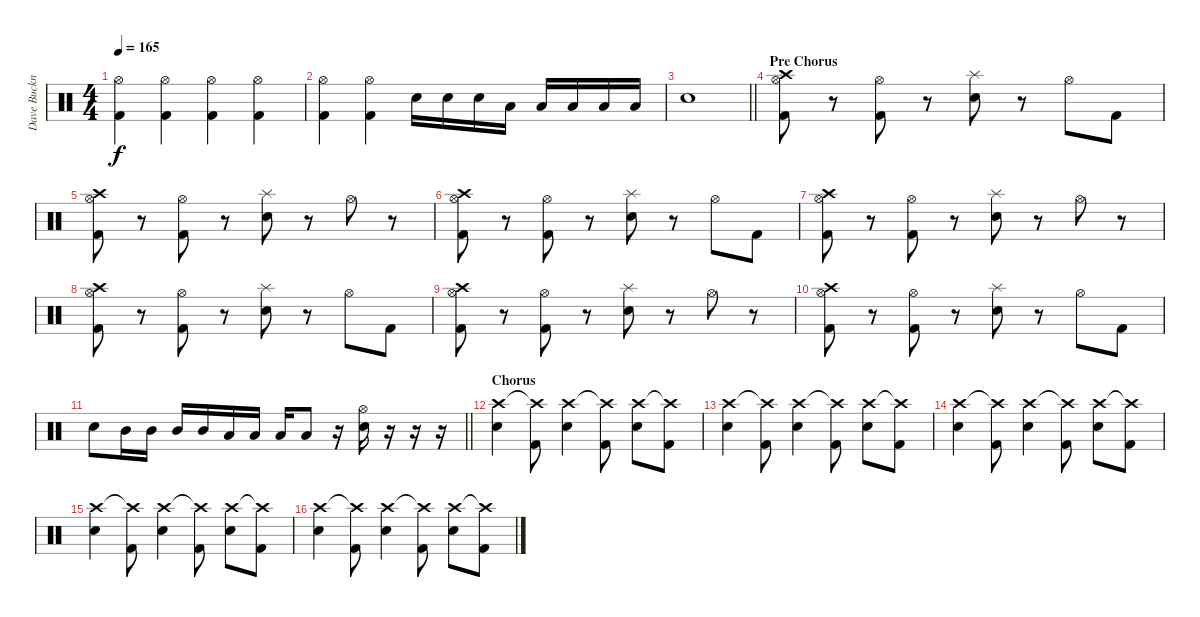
\track ("Dave Buckner " "Dave Buckn") {instrument percussion}
\staff {score}
\articulation defaults
\ts (4 4)
\tempo 165
\clef neutral
\ks c
("Hi-Hat (open)" "Kick (hit) 2").4{dy f} ("Hi-Hat (open)" "Kick (hit) 2").4 ("Hi-Hat (open)" "Kick (hit) 2").4 ("Hi-Hat (open)" "Kick (hit) 2").4 |
("Hi-Hat (open)" "Kick (hit) 2").4 ("Hi-Hat (open)" "Kick (hit) 2").4 "Snare (hit) 2".16 "Snare (hit) 2".16 "Snare (hit) 2".16 "Low Tom (hit)".16 "Low Tom (hit)".16 "Low Tom (hit)".16 "Low Tom (hit)".16 "Low Tom (hit)".16 |
\barLineRight lightlight "Snare (hit) 2".1
|
\section ("" "Pre Chorus")
("Crash high (hit)" "Hi-Hat (open)" "Kick (hit) 2").8 r.8 ("Hi-Hat (open)" "Kick (hit) 2").8 r.8 ("Splash (hit)" "Snare (hit) 2").8 r.8 "Hi-Hat (open)".8 "Kick (hit) 2".8 |
("Crash high (hit)" "Hi-Hat (open)" "Kick (hit) 2").8 r.8 ("Hi-Hat (open)" "Kick (hit) 2").8 r.8 ("Splash (hit)" "Snare (hit) 2").8 r.8 "Hi-Hat (open)".8 r.8 |
("Crash high (hit)" "Hi-Hat (open)" "Kick (hit) 2").8 r.8 ("Hi-Hat (open)" "Kick (hit) 2").8 r.8 ("Splash (hit)" "Snare (hit) 2").8 r.8 "Hi-Hat (open)".8 "Kick (hit) 2".8 |
("Crash high (hit)" "Hi-Hat (open)" "Kick (hit) 2").8 r.8 ("Hi-Hat (open)" "Kick (hit) 2").8 r.8 ("Splash (hit)" "Snare (hit) 2").8 r.8 "Hi-Hat (open)".8 r.8 |
("Crash high (hit)" "Hi-Hat (open)" "Kick (hit) 2").8 r.8 ("Hi-Hat (open)" "Kick (hit) 2").8 r.8 ("Splash (hit)" "Snare (hit) 2").8 r.8 "Hi-Hat (open)".8 "Kick (hit) 2".8 |
("Crash high (hit)" "Hi-Hat (open)" "Kick (hit) 2").8 r.8 ("Hi-Hat (open)" "Kick (hit) 2").8 r.8 ("Splash (hit)" "Snare (hit) 2").8 r.8 "Hi-Hat (open)".8 r.8 |
("Crash high (hit)" "Hi-Hat (open)" "Kick (hit) 2").8 r.8 ("Hi-Hat (open)" "Kick (hit) 2").8 r.8 ("Splash (hit)" "Snare (hit) 2").8 r.8 "Hi-Hat (open)".8 "Kick (hit) 2".8 |
\barLineRight lightlight "Snare (hit) 2".8 "Mid Tom (hit)".16 "Mid Tom (hit)".16 "Mid Tom (hit)".16 "Mid Tom (hit)".16 "Low Tom (hit)".16 "Low Tom (hit)".16 "Low Tom (hit)".16 "Low Tom (hit)".8
r.16 ("Hi-Hat (open)" "Snare (hit) 2").16 r.16 r.16 r.16 |
\section ("" "Chorus")
("Crash high (hit)" "Snare (hit) 2").4 ("Crash high (hit)"{t} "Kick (hit) 2").8 ("Crash high (hit)" "Snare (hit) 2").4 ("Crash high (hit)"{t} "Kick (hit) 2").8 ("Crash high (hit)" "Snare (hit) 2").8 ("Crash high (hit)"{t} "Kick (hit) 2").8 |
("Crash high (hit)" "Snare (hit) 2").4 ("Crash high (hit)"{t} "Kick (hit) 2").8 ("Crash high (hit)" "Snare (hit) 2").4 ("Crash high (hit)"{t} "Kick (hit) 2").8 ("Crash high (hit)" "Snare (hit) 2").8 ("Crash high (hit)"{t} "Kick (hit) 2").8 |
("Crash high (hit)" "Snare (hit) 2").4 ("Crash high (hit)"{t} "Kick (hit) 2").8 ("Crash high (hit)" "Snare (hit) 2").4 ("Crash high (hit)"{t} "Kick (hit) 2").8 ("Crash high (hit)" "Snare (hit) 2").8 ("Crash high (hit)"{t} "Kick (hit) 2").8 |
("Crash high (hit)" "Snare (hit) 2").4 ("Crash high (hit)"{t} "Kick (hit) 2").8 ("Crash high (hit)" "Snare (hit) 2").4 ("Crash high (hit)"{t} "Kick (hit) 2").8 ("Crash high (hit)" "Snare (hit) 2").8 ("Crash high (hit)"{t} "Kick (hit) 2").8 |
("Crash high (hit)" "Snare (hit) 2").4 ("Crash high (hit)"{t} "Kick (hit) 2").8 ("Crash high (hit)" "Snare (hit) 2").4 ("Crash high (hit)"{t} "Kick (hit) 2").8 ("Crash high (hit)" "Snare (hit) 2").8 ("Crash high (hit)"{t} "Kick (hit) 2").8
